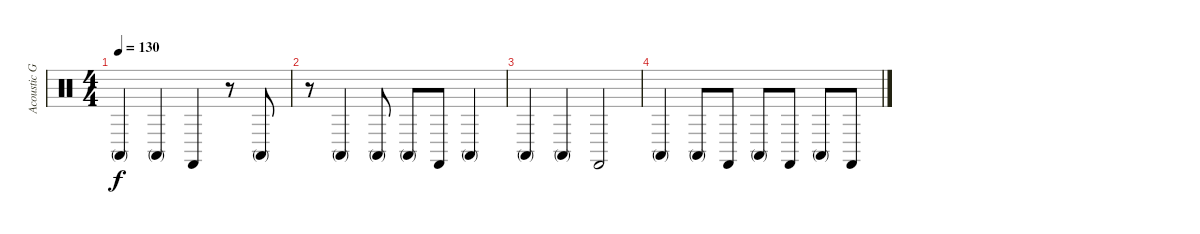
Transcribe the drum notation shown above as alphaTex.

\track ("Acoustic Guitar used for rythm" "Acoustic G") {instrument percussion}
\staff {score}
\articulation defaults
\ts (4 4)
\tempo 130
\clef neutral
\ks c "Conga high (mute)".4{dy f} "Conga high (mute)".4 "Castanets (hit)".4
r.8 "Conga high (mute)".8 |
r.8 "Conga high (mute)".4 "Conga high (mute)".8 "Conga high (mute)".8 "Castanets (hit)".8 "Conga high (mute)".4 |
"Conga high (mute)".4 "Conga high (mute)".4 "Castanets (hit)".2 |
"Conga high (mute)".4 "Conga high (mute)".8 "Castanets (hit)".8 "Conga high (mute)".8 "Castanets (hit)".8 "Conga high (mute)".8 "Castanets (hit)".8
